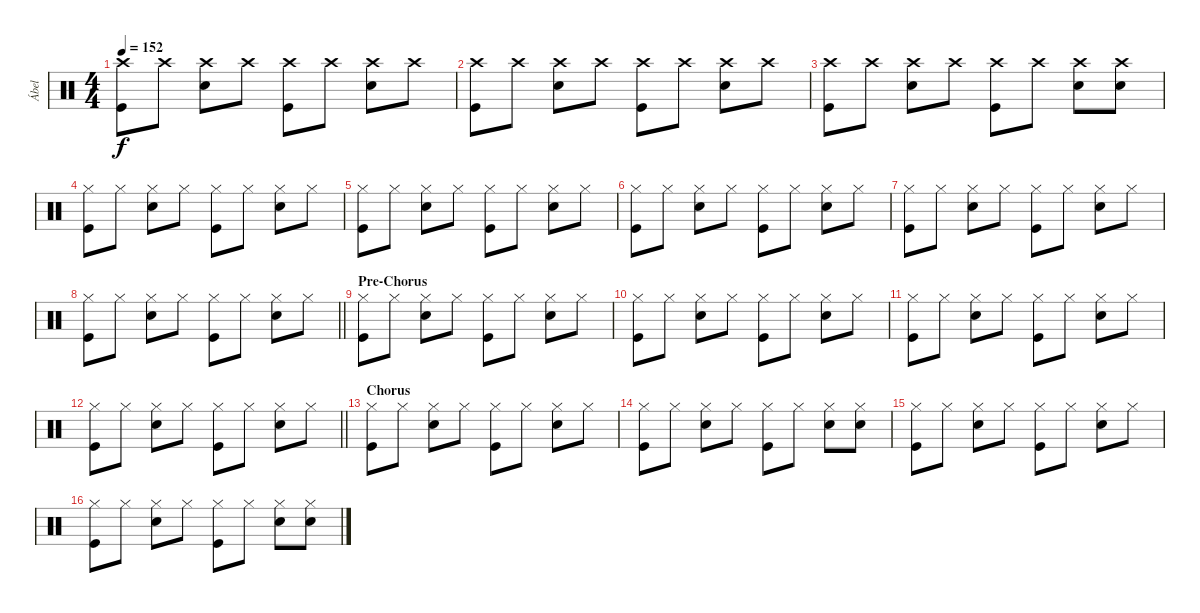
\track ("Ábel" "Ábel") {instrument percussion}
\staff {score}
\articulation defaults
\ts (4 4)
\tempo 152
\clef neutral
\ks c
("Crash high (hit)" "Kick (hit)").8{dy f} "Crash high (hit)".8 ("Crash high (hit)" "Snare (hit) 2").8 "Crash high (hit)".8 ("Crash high (hit)" "Kick (hit)").8 "Crash high (hit)".8 ("Crash high (hit)" "Snare (hit) 2").8 "Crash high (hit)".8 |
("Crash high (hit)" "Kick (hit)").8 "Crash high (hit)".8 ("Crash high (hit)" "Snare (hit) 2").8 "Crash high (hit)".8 ("Crash high (hit)" "Kick (hit)").8 "Crash high (hit)".8 ("Crash high (hit)" "Snare (hit) 2").8 "Crash high (hit)".8 |
("Crash high (hit)" "Kick (hit)").8 "Crash high (hit)".8 ("Crash high (hit)" "Snare (hit) 2").8 "Crash high (hit)".8 ("Crash high (hit)" "Kick (hit)").8 "Crash high (hit)".8 ("Crash high (hit)" "Snare (hit) 2").8 ("Crash high (hit)" "Snare (hit) 2").8 |
("Hi-Hat (closed)" "Kick (hit)").8 "Hi-Hat (closed)".8 ("Hi-Hat (closed)" "Snare (hit) 2").8 "Hi-Hat (closed)".8 ("Hi-Hat (closed)" "Kick (hit)").8 "Hi-Hat (closed)".8 ("Hi-Hat (closed)" "Snare (hit) 2").8 "Hi-Hat (closed)".8 |
("Hi-Hat (closed)" "Kick (hit)").8 "Hi-Hat (closed)".8 ("Hi-Hat (closed)" "Snare (hit) 2").8 "Hi-Hat (closed)".8 ("Hi-Hat (closed)" "Kick (hit)").8 "Hi-Hat (closed)".8 ("Hi-Hat (closed)" "Snare (hit) 2").8 "Hi-Hat (closed)".8 |
("Hi-Hat (closed)" "Kick (hit)").8 "Hi-Hat (closed)".8 ("Hi-Hat (closed)" "Snare (hit) 2").8 "Hi-Hat (closed)".8 ("Hi-Hat (closed)" "Kick (hit)").8 "Hi-Hat (closed)".8 ("Hi-Hat (closed)" "Snare (hit) 2").8 "Hi-Hat (closed)".8 |
("Hi-Hat (closed)" "Kick (hit)").8 "Hi-Hat (closed)".8 ("Hi-Hat (closed)" "Snare (hit) 2").8 "Hi-Hat (closed)".8 ("Hi-Hat (closed)" "Kick (hit)").8 "Hi-Hat (closed)".8 ("Hi-Hat (closed)" "Snare (hit) 2").8 "Hi-Hat (closed)".8 |
\barLineRight lightlight
("Hi-Hat (closed)" "Kick (hit)").8 "Hi-Hat (closed)".8 ("Hi-Hat (closed)" "Snare (hit) 2").8 "Hi-Hat (closed)".8 ("Hi-Hat (closed)" "Kick (hit)").8 "Hi-Hat (closed)".8 ("Hi-Hat (closed)" "Snare (hit) 2").8 "Hi-Hat (closed)".8 |
\section ("" "Pre-Chorus")
("Hi-Hat (closed)" "Kick (hit)").8 "Hi-Hat (closed)".8 ("Hi-Hat (closed)" "Snare (hit) 2").8 "Hi-Hat (closed)".8 ("Hi-Hat (closed)" "Kick (hit)").8 "Hi-Hat (closed)".8 ("Hi-Hat (closed)" "Snare (hit) 2").8 "Hi-Hat (closed)".8 |
("Hi-Hat (closed)" "Kick (hit)").8 "Hi-Hat (closed)".8 ("Hi-Hat (closed)" "Snare (hit) 2").8 "Hi-Hat (closed)".8 ("Hi-Hat (closed)" "Kick (hit)").8 "Hi-Hat (closed)".8 ("Hi-Hat (closed)" "Snare (hit) 2").8 "Hi-Hat (closed)".8 |
("Hi-Hat (closed)" "Kick (hit)").8 "Hi-Hat (closed)".8 ("Hi-Hat (closed)" "Snare (hit) 2").8 "Hi-Hat (closed)".8 ("Hi-Hat (closed)" "Kick (hit)").8 "Hi-Hat (closed)".8 ("Hi-Hat (closed)" "Snare (hit) 2").8 "Hi-Hat (closed)".8 |
\barLineRight lightlight
("Hi-Hat (closed)" "Kick (hit)").8 "Hi-Hat (closed)".8 ("Hi-Hat (closed)" "Snare (hit) 2").8 "Hi-Hat (closed)".8 ("Hi-Hat (closed)" "Kick (hit)").8 "Hi-Hat (closed)".8 ("Hi-Hat (closed)" "Snare (hit) 2").8 "Hi-Hat (closed)".8 |
\section ("" "Chorus")
("Hi-Hat (closed)" "Kick (hit)").8 "Hi-Hat (closed)".8 ("Hi-Hat (closed)" "Snare (hit) 2").8 "Hi-Hat (closed)".8 ("Hi-Hat (closed)" "Kick (hit)").8 "Hi-Hat (closed)".8 ("Hi-Hat (closed)" "Snare (hit) 2").8 "Hi-Hat (closed)".8 |
("Hi-Hat (closed)" "Kick (hit)").8 "Hi-Hat (closed)".8 ("Hi-Hat (closed)" "Snare (hit) 2").8 "Hi-Hat (closed)".8 ("Hi-Hat (closed)" "Kick (hit)").8 "Hi-Hat (closed)".8 ("Hi-Hat (closed)" "Snare (hit) 2").8 ("Hi-Hat (closed)" "Snare (hit) 2").8 |
("Hi-Hat (closed)" "Kick (hit)").8 "Hi-Hat (closed)".8 ("Hi-Hat (closed)" "Snare (hit) 2").8 "Hi-Hat (closed)".8 ("Hi-Hat (closed)" "Kick (hit)").8 "Hi-Hat (closed)".8 ("Hi-Hat (closed)" "Snare (hit) 2").8 "Hi-Hat (closed)".8 |
("Hi-Hat (closed)" "Kick (hit)").8 "Hi-Hat (closed)".8 ("Hi-Hat (closed)" "Snare (hit) 2").8 "Hi-Hat (closed)".8 ("Hi-Hat (closed)" "Kick (hit)").8 "Hi-Hat (closed)".8 ("Hi-Hat (closed)" "Snare (hit) 2").8 ("Hi-Hat (closed)" "Snare (hit) 2").8
